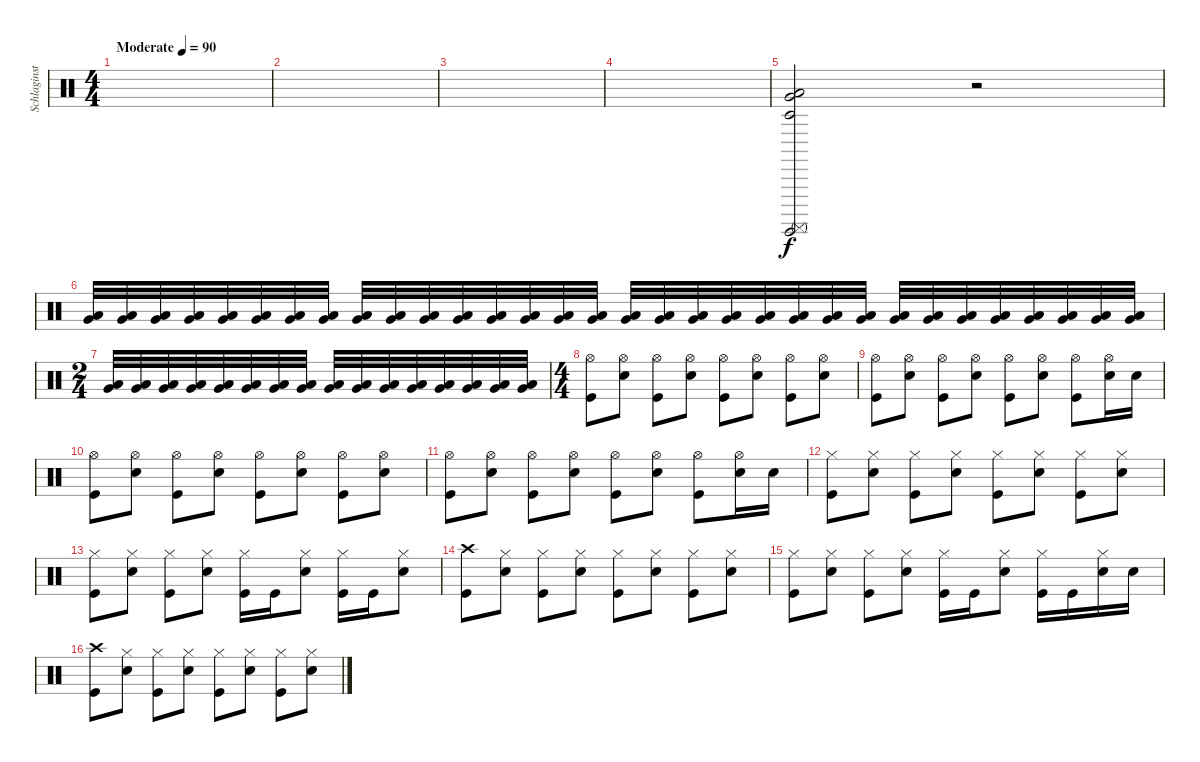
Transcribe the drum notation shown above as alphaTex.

\track ("Schlaginstrumente - Auswahl" "Schlaginst") {instrument percussion}
\staff {score}
\articulation defaults
\ts (4 4)
\tempo (90 "Moderate")
\clef neutral
\ks c
|
|
|
|
("Surdo (mute)" "Surdo (hit)" "Low Floor Tom (hit)" "Timbale low (hit)" "Very Low Tom (hit)").2 r.2 |
("Very Low Tom (hit)" "Low Floor Tom (hit)").32 ("Very Low Tom (hit)" "Low Floor Tom (hit)").32 ("Very Low Tom (hit)" "Low Floor Tom (hit)").32 ("Very Low Tom (hit)" "Low Floor Tom (hit)").32 ("Very Low Tom (hit)" "Low Floor Tom (hit)").32 ("Very Low Tom (hit)" "Low Floor Tom (hit)").32 ("Very Low Tom (hit)" "Low Floor Tom (hit)").32 ("Very Low Tom (hit)" "Low Floor Tom (hit)").32 ("Very Low Tom (hit)" "Low Floor Tom (hit)").32 ("Very Low Tom (hit)" "Low Floor Tom (hit)").32 ("Very Low Tom (hit)" "Low Floor Tom (hit)").32 ("Very Low Tom (hit)" "Low Floor Tom (hit)").32 ("Very Low Tom (hit)" "Low Floor Tom (hit)").32 ("Very Low Tom (hit)" "Low Floor Tom (hit)").32 ("Very Low Tom (hit)" "Low Floor Tom (hit)").32 ("Very Low Tom (hit)" "Low Floor Tom (hit)").32 ("Very Low Tom (hit)" "Low Floor Tom (hit)").32 ("Very Low Tom (hit)" "Low Floor Tom (hit)").32 ("Very Low Tom (hit)" "Low Floor Tom (hit)").32 ("Very Low Tom (hit)" "Low Floor Tom (hit)").32 ("Very Low Tom (hit)" "Low Floor Tom (hit)").32 ("Very Low Tom (hit)" "Low Floor Tom (hit)").32 ("Very Low Tom (hit)" "Low Floor Tom (hit)").32 ("Very Low Tom (hit)" "Low Floor Tom (hit)").32 ("Very Low Tom (hit)" "Low Floor Tom (hit)").32 ("Very Low Tom (hit)" "Low Floor Tom (hit)").32 ("Very Low Tom (hit)" "Low Floor Tom (hit)").32 ("Very Low Tom (hit)" "Low Floor Tom (hit)").32 ("Very Low Tom (hit)" "Low Floor Tom (hit)").32 ("Very Low Tom (hit)" "Low Floor Tom (hit)").32 ("Very Low Tom (hit)" "Low Floor Tom (hit)").32 ("Very Low Tom (hit)" "Low Floor Tom (hit)").32 |
\ts (2 4)
("Very Low Tom (hit)" "Low Floor Tom (hit)").32 ("Very Low Tom (hit)" "Low Floor Tom (hit)").32 ("Very Low Tom (hit)" "Low Floor Tom (hit)").32 ("Very Low Tom (hit)" "Low Floor Tom (hit)").32 ("Very Low Tom (hit)" "Low Floor Tom (hit)").32 ("Very Low Tom (hit)" "Low Floor Tom (hit)").32 ("Very Low Tom (hit)" "Low Floor Tom (hit)").32 ("Very Low Tom (hit)" "Low Floor Tom (hit)").32 ("Very Low Tom (hit)" "Low Floor Tom (hit)").32 ("Very Low Tom (hit)" "Low Floor Tom (hit)").32 ("Very Low Tom (hit)" "Low Floor Tom (hit)").32 ("Very Low Tom (hit)" "Low Floor Tom (hit)").32 ("Very Low Tom (hit)" "Low Floor Tom (hit)").32 ("Very Low Tom (hit)" "Low Floor Tom (hit)").32 ("Very Low Tom (hit)" "Low Floor Tom (hit)").32 ("Very Low Tom (hit)" "Low Floor Tom (hit)").32 |
\ts (4 4)
("Hi-Hat (open)" "Kick (hit)").8 ("Hi-Hat (open)" "Snare (hit) 2").8 ("Hi-Hat (open)" "Kick (hit)").8 ("Hi-Hat (open)" "Snare (hit) 2").8 ("Hi-Hat (open)" "Kick (hit)").8 ("Hi-Hat (open)" "Snare (hit) 2").8 ("Hi-Hat (open)" "Kick (hit)").8 ("Hi-Hat (open)" "Snare (hit) 2").8 |
("Hi-Hat (open)" "Kick (hit)").8 ("Hi-Hat (open)" "Snare (hit) 2").8 ("Hi-Hat (open)" "Kick (hit)").8 ("Hi-Hat (open)" "Snare (hit) 2").8 ("Hi-Hat (open)" "Kick (hit)").8 ("Hi-Hat (open)" "Snare (hit) 2").8 ("Hi-Hat (open)" "Kick (hit)").8 ("Hi-Hat (open)" "Snare (hit) 2").16 "Snare (hit) 2".16 |
("Hi-Hat (open)" "Kick (hit)").8 ("Hi-Hat (open)" "Snare (hit) 2").8 ("Hi-Hat (open)" "Kick (hit)").8 ("Hi-Hat (open)" "Snare (hit) 2").8 ("Hi-Hat (open)" "Kick (hit)").8 ("Hi-Hat (open)" "Snare (hit) 2").8 ("Hi-Hat (open)" "Kick (hit)").8 ("Hi-Hat (open)" "Snare (hit) 2").8 |
("Hi-Hat (open)" "Kick (hit)").8 ("Hi-Hat (open)" "Snare (hit) 2").8 ("Hi-Hat (open)" "Kick (hit)").8 ("Hi-Hat (open)" "Snare (hit) 2").8 ("Hi-Hat (open)" "Kick (hit)").8 ("Hi-Hat (open)" "Snare (hit) 2").8 ("Hi-Hat (open)" "Kick (hit)").8 ("Hi-Hat (open)" "Snare (hit) 2").16 "Snare (hit) 2".16 |
("Hi-Hat (closed)" "Kick (hit)").8 ("Hi-Hat (closed)" "Snare (hit) 2").8 ("Hi-Hat (closed)" "Kick (hit)").8 ("Hi-Hat (closed)" "Snare (hit) 2").8 ("Hi-Hat (closed)" "Kick (hit)").8 ("Hi-Hat (closed)" "Snare (hit) 2").8 ("Hi-Hat (closed)" "Kick (hit)").8 ("Hi-Hat (closed)" "Snare (hit) 2").8 |
("Hi-Hat (closed)" "Kick (hit)").8 ("Hi-Hat (closed)" "Snare (hit) 2").8 ("Hi-Hat (closed)" "Kick (hit)").8 ("Hi-Hat (closed)" "Snare (hit) 2").8 ("Hi-Hat (closed)" "Kick (hit)").16 "Kick (hit)".16 ("Hi-Hat (closed)" "Snare (hit) 2").8 ("Hi-Hat (closed)" "Kick (hit)").16 "Kick (hit)".16 ("Hi-Hat (closed)" "Snare (hit) 2").8 |
("Crash high (hit)" "Kick (hit)").8 ("Hi-Hat (closed)" "Snare (hit) 2").8 ("Hi-Hat (closed)" "Kick (hit)").8 ("Hi-Hat (closed)" "Snare (hit) 2").8 ("Hi-Hat (closed)" "Kick (hit)").8 ("Hi-Hat (closed)" "Snare (hit) 2").8 ("Hi-Hat (closed)" "Kick (hit)").8 ("Hi-Hat (closed)" "Snare (hit) 2").8 |
("Hi-Hat (closed)" "Kick (hit)").8 ("Hi-Hat (closed)" "Snare (hit) 2").8 ("Hi-Hat (closed)" "Kick (hit)").8 ("Hi-Hat (closed)" "Snare (hit) 2").8 ("Hi-Hat (closed)" "Kick (hit)").16 "Kick (hit)".16 ("Hi-Hat (closed)" "Snare (hit) 2").8 ("Hi-Hat (closed)" "Kick (hit)").16 "Kick (hit)".16 ("Hi-Hat (closed)" "Snare (hit) 2").16 "Snare (hit) 2".16 |
("Crash high (hit)" "Kick (hit)").8 ("Hi-Hat (closed)" "Snare (hit) 2").8 ("Hi-Hat (closed)" "Kick (hit)").8 ("Hi-Hat (closed)" "Snare (hit) 2").8 ("Hi-Hat (closed)" "Kick (hit)").8 ("Hi-Hat (closed)" "Snare (hit) 2").8 ("Hi-Hat (closed)" "Kick (hit)").8 ("Hi-Hat (closed)" "Snare (hit) 2").8
